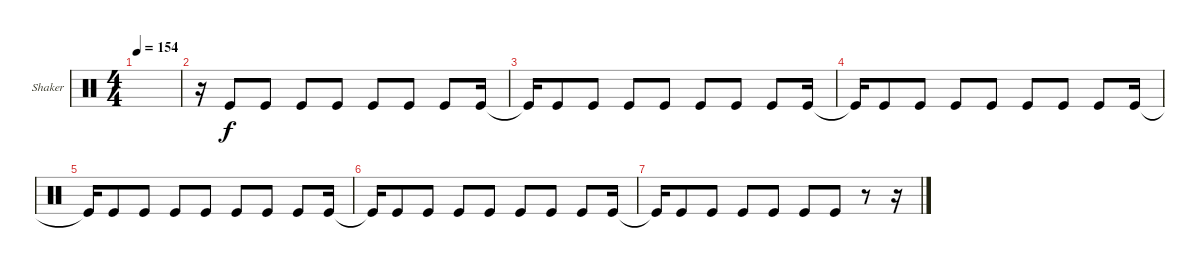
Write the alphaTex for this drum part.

\defaultSystemsLayout 4
\bracketExtendMode groupsimilarinstruments
\firstSystemTrackNameOrientation horizontal
\otherSystemsTrackNameOrientation horizontal
\track ("Shaker" "Shaker") {instrument percussion}
\staff {score}
\articulation defaults
\ts (4 4)
\tempo 154
\clef neutral
\ks c
|
r.16 "Kick (hit)".8 "Kick (hit)".8 "Kick (hit)".8 "Kick (hit)".8 "Kick (hit)".8 "Kick (hit)".8 "Kick (hit)".8 "Kick (hit)".16 |
"Kick (hit)"{t}.16 "Kick (hit)".8 "Kick (hit)".8 "Kick (hit)".8 "Kick (hit)".8 "Kick (hit)".8 "Kick (hit)".8 "Kick (hit)".8 "Kick (hit)".16 |
"Kick (hit)"{t}.16 "Kick (hit)".8 "Kick (hit)".8 "Kick (hit)".8 "Kick (hit)".8 "Kick (hit)".8 "Kick (hit)".8 "Kick (hit)".8 "Kick (hit)".16 |
"Kick (hit)"{t}.16 "Kick (hit)".8 "Kick (hit)".8 "Kick (hit)".8 "Kick (hit)".8 "Kick (hit)".8 "Kick (hit)".8 "Kick (hit)".8 "Kick (hit)".16 |
"Kick (hit)"{t}.16 "Kick (hit)".8 "Kick (hit)".8 "Kick (hit)".8 "Kick (hit)".8 "Kick (hit)".8 "Kick (hit)".8 "Kick (hit)".8 "Kick (hit)".16 |
"Kick (hit)"{t}.16 "Kick (hit)".8 "Kick (hit)".8 "Kick (hit)".8 "Kick (hit)".8 "Kick (hit)".8 "Kick (hit)".8 r.8 r.16
